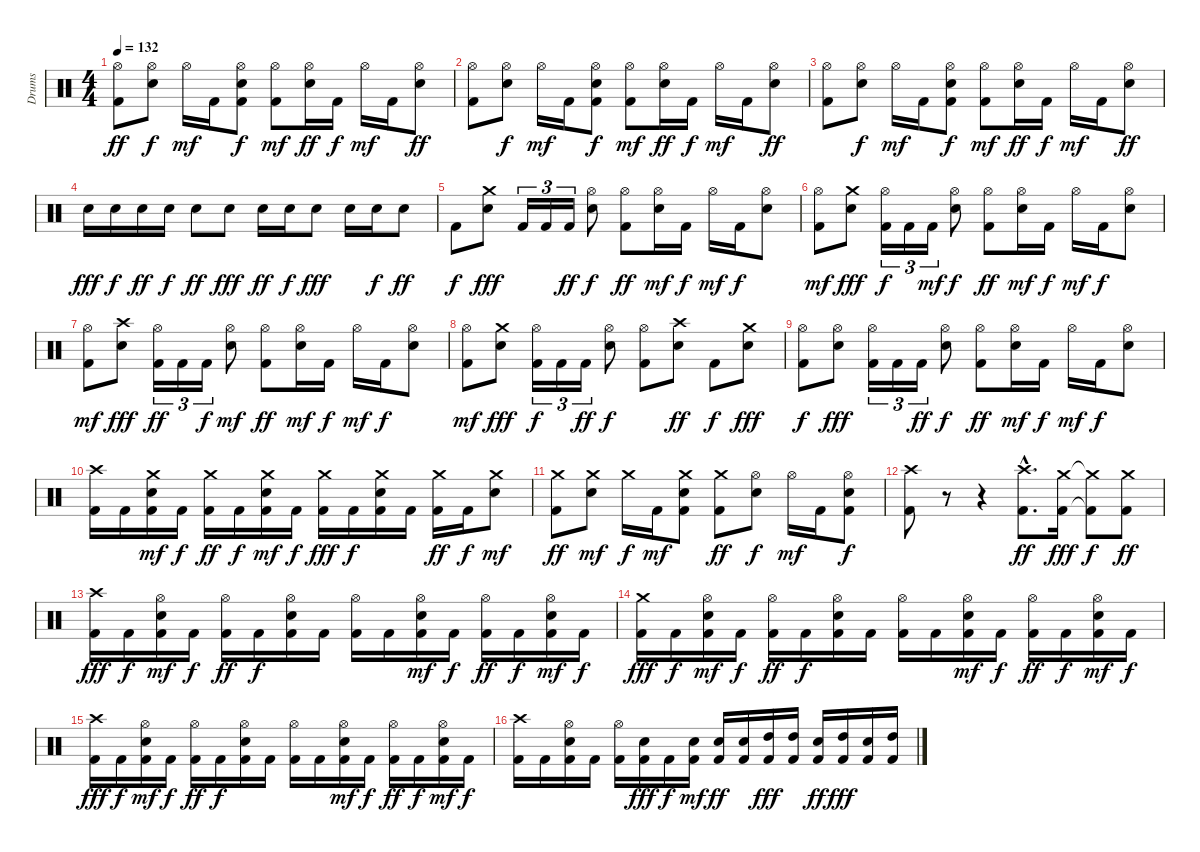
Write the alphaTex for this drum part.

\track ("Drums" "Drums") {instrument percussion}
\staff {score}
\articulation defaults
\ts (4 4)
\tempo 132
\clef neutral
\ks c
("Hi-Hat (open)" "Kick (hit) 2").8{dy ff} ("Hi-Hat (open)" "Electric Snare (hit)").8{dy f} "Hi-Hat (open)".16{dy mf} "Kick (hit) 2".16 ("Hi-Hat (open)" "Electric Snare (hit)" "Kick (hit) 2").8{dy f} ("Hi-Hat (open)" "Kick (hit) 2").8{dy mf} ("Hi-Hat (open)" "Electric Snare (hit)").16{dy ff} "Kick (hit) 2".16{dy f} "Hi-Hat (open)".16{dy mf} "Kick (hit) 2".16 ("Hi-Hat (open)" "Electric Snare (hit)").8{dy ff} |
("Hi-Hat (open)" "Kick (hit) 2").8 ("Hi-Hat (open)" "Electric Snare (hit)").8{dy f} "Hi-Hat (open)".16{dy mf} "Kick (hit) 2".16 ("Hi-Hat (open)" "Electric Snare (hit)" "Kick (hit) 2").8{dy f} ("Hi-Hat (open)" "Kick (hit) 2").8{dy mf} ("Hi-Hat (open)" "Electric Snare (hit)").16{dy ff} "Kick (hit) 2".16{dy f} "Hi-Hat (open)".16{dy mf} "Kick (hit) 2".16 ("Hi-Hat (open)" "Electric Snare (hit)").8{dy ff} |
("Hi-Hat (open)" "Kick (hit) 2").8 ("Hi-Hat (open)" "Electric Snare (hit)").8{dy f} "Hi-Hat (open)".16{dy mf} "Kick (hit) 2".16 ("Hi-Hat (open)" "Electric Snare (hit)" "Kick (hit) 2").8{dy f} ("Hi-Hat (open)" "Kick (hit) 2").8{dy mf} ("Hi-Hat (open)" "Electric Snare (hit)").16{dy ff} "Kick (hit) 2".16{dy f} "Hi-Hat (open)".16{dy mf} "Kick (hit) 2".16 ("Hi-Hat (open)" "Electric Snare (hit)").8{dy ff} |
"Electric Snare (hit)".16{dy fff} "Electric Snare (hit)".16{dy f} "Electric Snare (hit)".16{dy ff} "Electric Snare (hit)".16{dy f} "Electric Snare (hit)".8{dy ff} "Electric Snare (hit)".8{dy fff} "Electric Snare (hit)".16{dy ff} "Electric Snare (hit)".16{dy f} "Electric Snare (hit)".8{dy fff} "Electric Snare (hit)".16 "Electric Snare (hit)".16{dy f} "Electric Snare (hit)".8{dy ff} |
"Kick (hit) 2".8{dy f} ("Crash medium (hit)" "Electric Snare (hit)").8{dy fff} "Kick (hit) 2".16{tu (3 2)} "Kick (hit) 2".16{tu (3 2)} "Kick (hit) 2".16{tu (3 2) dy ff} ("Hi-Hat (open)" "Electric Snare (hit)").8{dy f} ("Hi-Hat (open)" "Kick (hit) 2").8{dy ff} ("Hi-Hat (open)" "Electric Snare (hit)").16{dy mf} "Kick (hit) 2".16{dy f} "Hi-Hat (open)".16{dy mf} "Kick (hit) 2".16{dy f} ("Hi-Hat (open)" "Electric Snare (hit)").8 |
("Hi-Hat (open)" "Kick (hit) 2").8{dy mf} ("Crash medium (hit)" "Electric Snare (hit)").8{dy fff} ("Hi-Hat (open)" "Kick (hit) 2").16{tu (3 2) dy f} "Kick (hit) 2".16{tu (3 2)} "Kick (hit) 2".16{tu (3 2) dy mf} ("Hi-Hat (open)" "Electric Snare (hit)").8{dy f} ("Hi-Hat (open)" "Kick (hit) 2").8{dy ff} ("Hi-Hat (open)" "Electric Snare (hit)").16{dy mf} "Kick (hit) 2".16{dy f} "Hi-Hat (open)".16{dy mf} "Kick (hit) 2".16{dy f} ("Hi-Hat (open)" "Electric Snare (hit)").8 |
("Hi-Hat (open)" "Kick (hit) 2").8{dy mf} ("Crash high (hit)" "Electric Snare (hit)").8{dy fff} ("Hi-Hat (open)" "Kick (hit) 2").16{tu (3 2) dy ff} "Kick (hit) 2".16{tu (3 2)} "Kick (hit) 2".16{tu (3 2) dy f} ("Hi-Hat (open)" "Electric Snare (hit)").8{dy mf} ("Hi-Hat (open)" "Kick (hit) 2").8{dy ff} ("Hi-Hat (open)" "Electric Snare (hit)").16{dy mf} "Kick (hit) 2".16{dy f} "Hi-Hat (open)".16{dy mf} "Kick (hit) 2".16{dy f} ("Hi-Hat (open)" "Electric Snare (hit)").8 |
("Hi-Hat (open)" "Kick (hit) 2").8{dy mf} ("Crash medium (hit)" "Electric Snare (hit)").8{dy fff} ("Hi-Hat (open)" "Kick (hit) 2").16{tu (3 2) dy f} "Kick (hit) 2".16{tu (3 2)} "Kick (hit) 2".16{tu (3 2) dy ff} ("Hi-Hat (open)" "Electric Snare (hit)").8{dy f} ("Hi-Hat (open)" "Kick (hit) 2").8 ("Crash high (hit)" "Electric Snare (hit)").8{dy ff} "Kick (hit) 2".8{dy f} ("Crash medium (hit)" "Electric Snare (hit)").8{dy fff} |
("Hi-Hat (open)" "Kick (hit) 2").8{dy f} ("Hi-Hat (open)" "Electric Snare (hit)").8{dy fff} ("Hi-Hat (open)" "Kick (hit) 2").16{tu (3 2)} "Kick (hit) 2".16{tu (3 2)} "Kick (hit) 2".16{tu (3 2) dy ff} ("Hi-Hat (open)" "Electric Snare (hit)").8{dy f} ("Hi-Hat (open)" "Kick (hit) 2").8{dy ff} ("Hi-Hat (open)" "Electric Snare (hit)").16{dy mf} "Kick (hit) 2".16{dy f} "Hi-Hat (open)".16{dy mf} "Kick (hit) 2".16{dy f} ("Hi-Hat (open)" "Electric Snare (hit)").8 |
("Crash high (hit)" "Kick (hit) 2").16 "Kick (hit) 2".16 ("Crash medium (hit)" "Electric Snare (hit)" "Kick (hit) 2").16{dy mf} "Kick (hit) 2".16{dy f} ("Crash medium (hit)" "Kick (hit) 2").16{dy ff} "Kick (hit) 2".16{dy f} ("Crash medium (hit)" "Electric Snare (hit)" "Kick (hit) 2").16{dy mf} "Kick (hit) 2".16{dy f} ("Crash medium (hit)" "Kick (hit) 2").16{dy fff} "Kick (hit) 2".16{dy f} ("Crash medium (hit)" "Electric Snare (hit)" "Kick (hit) 2").16 "Kick (hit) 2".16 ("Crash medium (hit)" "Kick (hit) 2").16{dy ff} "Kick (hit) 2".16{dy f} ("Crash medium (hit)" "Electric Snare (hit)").8{dy mf} |
("Crash medium (hit)" "Kick (hit) 2").8{dy ff} ("Crash medium (hit)" "Electric Snare (hit)").8{dy mf} "Crash medium (hit)".16{dy f} "Kick (hit) 2".16{dy mf} ("Crash medium (hit)" "Electric Snare (hit)" "Kick (hit) 2").8 ("Crash medium (hit)" "Kick (hit) 2").8{dy ff} ("Hi-Hat (open)" "Electric Snare (hit)").8{dy f} "Hi-Hat (open)".16{dy mf} "Kick (hit) 2".16 ("Hi-Hat (open)" "Electric Snare (hit)" "Kick (hit) 2").8{dy f} |
("Crash high (hit)" "Kick (hit) 2").8 r.8{volume 0} r.4 ("Crash high (hit)"{hac} "Kick (hit) 2"{hac}).8{d dy ff volume 14} ("Crash medium (hit)" "Kick (hit) 2").16{dy fff} ("Crash medium (hit)"{t} "Kick (hit) 2"{t}).8{dy f} ("Crash medium (hit)" "Kick (hit) 2").8{dy ff} |
("Crash high (hit)" "Kick (hit) 2").16{dy fff} "Kick (hit) 2".16{dy f} ("Hi-Hat (open)" "Electric Snare (hit)" "Kick (hit) 2").16{dy mf} "Kick (hit) 2".16{dy f} ("Hi-Hat (open)" "Kick (hit) 2").16{dy ff} "Kick (hit) 2".16{dy f} ("Hi-Hat (open)" "Electric Snare (hit)" "Kick (hit) 2").16 "Kick (hit) 2".16 ("Hi-Hat (open)" "Kick (hit) 2").16 "Kick (hit) 2".16 ("Hi-Hat (open)" "Electric Snare (hit)" "Kick (hit) 2").16{dy mf} "Kick (hit) 2".16{dy f} ("Hi-Hat (open)" "Kick (hit) 2").16{dy ff} "Kick (hit) 2".16{dy f} ("Hi-Hat (open)" "Electric Snare (hit)" "Kick (hit) 2").16{dy mf} "Kick (hit) 2".16{dy f} |
("Crash medium (hit)" "Kick (hit) 2").16{dy fff} "Kick (hit) 2".16{dy f} ("Hi-Hat (open)" "Electric Snare (hit)" "Kick (hit) 2").16{dy mf} "Kick (hit) 2".16{dy f} ("Hi-Hat (open)" "Kick (hit) 2").16{dy ff} "Kick (hit) 2".16{dy f} ("Hi-Hat (open)" "Electric Snare (hit)" "Kick (hit) 2").16 "Kick (hit) 2".16 ("Hi-Hat (open)" "Kick (hit) 2").16 "Kick (hit) 2".16 ("Hi-Hat (open)" "Electric Snare (hit)" "Kick (hit) 2").16{dy mf} "Kick (hit) 2".16{dy f} ("Hi-Hat (open)" "Kick (hit) 2").16{dy ff} "Kick (hit) 2".16{dy f} ("Hi-Hat (open)" "Electric Snare (hit)" "Kick (hit) 2").16{dy mf} "Kick (hit) 2".16{dy f} |
("Crash high (hit)" "Kick (hit) 2").16{dy fff} "Kick (hit) 2".16{dy f} ("Hi-Hat (open)" "Electric Snare (hit)" "Kick (hit) 2").16{dy mf} "Kick (hit) 2".16{dy f} ("Hi-Hat (open)" "Kick (hit) 2").16{dy ff} "Kick (hit) 2".16{dy f} ("Hi-Hat (open)" "Electric Snare (hit)" "Kick (hit) 2").16 "Kick (hit) 2".16 ("Hi-Hat (open)" "Kick (hit) 2").16 "Kick (hit) 2".16 ("Hi-Hat (open)" "Electric Snare (hit)" "Kick (hit) 2").16{dy mf} "Kick (hit) 2".16{dy f} ("Hi-Hat (open)" "Kick (hit) 2").16{dy ff} "Kick (hit) 2".16{dy f} ("Hi-Hat (open)" "Electric Snare (hit)" "Kick (hit) 2").16{dy mf} "Kick (hit) 2".16{dy f} |
("Crash high (hit)" "Kick (hit) 2").16 "Kick (hit) 2".16 ("Hi-Hat (open)" "Electric Snare (hit)" "Kick (hit) 2").16 "Kick (hit) 2".16 ("Hi-Hat (open)" "Kick (hit) 2").16 ("Electric Snare (hit)" "Kick (hit) 2").16{dy fff} "Kick (hit) 2".16{dy f} ("Electric Snare (hit)" "Kick (hit) 2").16{dy mf} ("Electric Snare (hit)" "Kick (hit) 2").16{dy ff} ("Electric Snare (hit)" "Kick (hit) 2").16 ("High Tom (hit)" "Kick (hit) 2").16{dy fff} ("High Tom (hit)" "Kick (hit) 2").16 ("Electric Snare (hit)" "Kick (hit) 2").16{dy ff} ("High Tom (hit)" "Kick (hit) 2").16{dy fff} ("Electric Snare (hit)" "Kick (hit) 2").16 ("High Tom (hit)" "Kick (hit) 2").16
